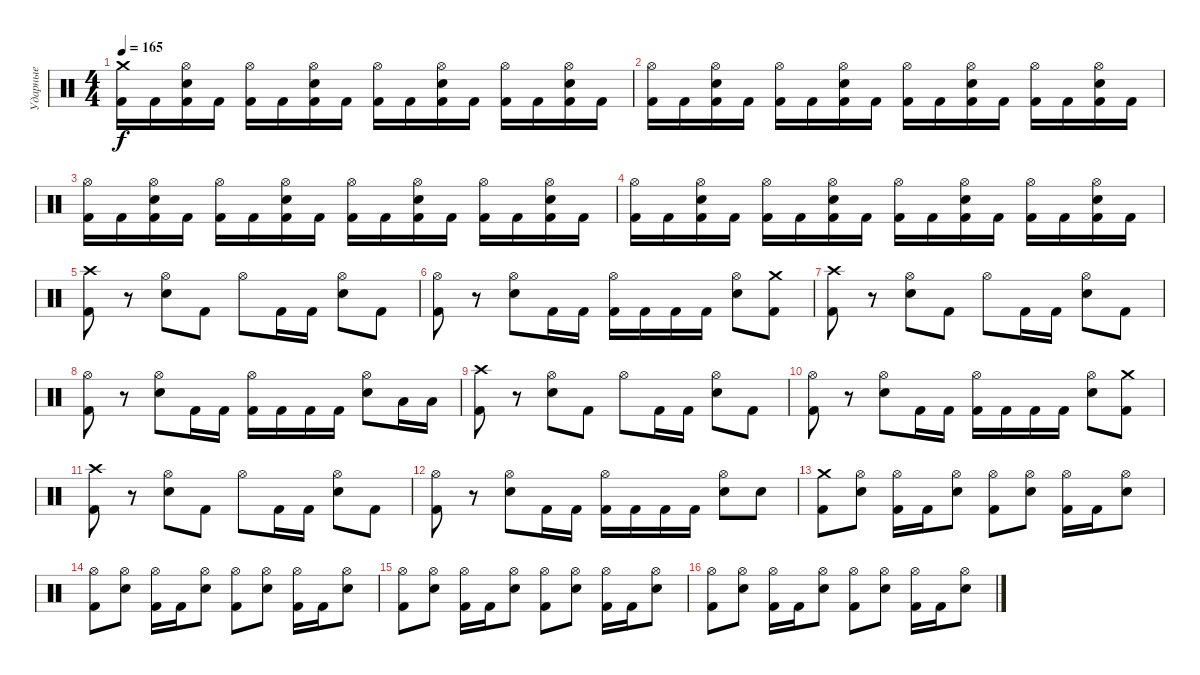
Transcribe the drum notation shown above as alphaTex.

\track ("Ударные" "Ударные") {instrument percussion}
\staff {score}
\articulation defaults
\ts (4 4)
\tempo 165
\clef neutral
\ks c
("Kick (hit) 2" "Crash medium (hit)").16{dy f} "Kick (hit) 2".16 ("Kick (hit) 2" "Electric Snare (hit)" "Hi-Hat (open)").16 "Kick (hit) 2".16 ("Kick (hit) 2" "Hi-Hat (open)").16 "Kick (hit) 2".16 ("Kick (hit) 2" "Electric Snare (hit)" "Hi-Hat (open)").16 "Kick (hit) 2".16 ("Kick (hit) 2" "Hi-Hat (open)").16 "Kick (hit) 2".16 ("Kick (hit) 2" "Electric Snare (hit)" "Hi-Hat (open)").16 "Kick (hit) 2".16 ("Kick (hit) 2" "Hi-Hat (open)").16 "Kick (hit) 2".16 ("Kick (hit) 2" "Electric Snare (hit)" "Hi-Hat (open)").16 "Kick (hit) 2".16 |
("Kick (hit) 2" "Hi-Hat (open)").16 "Kick (hit) 2".16 ("Kick (hit) 2" "Electric Snare (hit)" "Hi-Hat (open)").16 "Kick (hit) 2".16 ("Kick (hit) 2" "Hi-Hat (open)").16 "Kick (hit) 2".16 ("Kick (hit) 2" "Electric Snare (hit)" "Hi-Hat (open)").16 "Kick (hit) 2".16 ("Kick (hit) 2" "Hi-Hat (open)").16 "Kick (hit) 2".16 ("Kick (hit) 2" "Electric Snare (hit)" "Hi-Hat (open)").16 "Kick (hit) 2".16 ("Kick (hit) 2" "Hi-Hat (open)").16 "Kick (hit) 2".16 ("Kick (hit) 2" "Electric Snare (hit)" "Hi-Hat (open)").16 "Kick (hit) 2".16 |
("Kick (hit) 2" "Hi-Hat (open)").16 "Kick (hit) 2".16 ("Kick (hit) 2" "Electric Snare (hit)" "Hi-Hat (open)").16 "Kick (hit) 2".16 ("Kick (hit) 2" "Hi-Hat (open)").16 "Kick (hit) 2".16 ("Kick (hit) 2" "Electric Snare (hit)" "Hi-Hat (open)").16 "Kick (hit) 2".16 ("Kick (hit) 2" "Hi-Hat (open)").16 "Kick (hit) 2".16 ("Kick (hit) 2" "Electric Snare (hit)" "Hi-Hat (open)").16 "Kick (hit) 2".16 ("Kick (hit) 2" "Hi-Hat (open)").16 "Kick (hit) 2".16 ("Kick (hit) 2" "Electric Snare (hit)" "Hi-Hat (open)").16 "Kick (hit) 2".16 |
("Kick (hit) 2" "Hi-Hat (open)").16 "Kick (hit) 2".16 ("Kick (hit) 2" "Electric Snare (hit)" "Hi-Hat (open)").16 "Kick (hit) 2".16 ("Kick (hit) 2" "Hi-Hat (open)").16 "Kick (hit) 2".16 ("Kick (hit) 2" "Electric Snare (hit)" "Hi-Hat (open)").16 "Kick (hit) 2".16 ("Kick (hit) 2" "Hi-Hat (open)").16 "Kick (hit) 2".16 ("Kick (hit) 2" "Electric Snare (hit)" "Hi-Hat (open)").16 "Kick (hit) 2".16 ("Kick (hit) 2" "Hi-Hat (open)").16 "Kick (hit) 2".16 ("Kick (hit) 2" "Electric Snare (hit)" "Hi-Hat (open)").16 "Kick (hit) 2".16 |
("Crash high (hit)" "Kick (hit) 2").8 r.8 ("Hi-Hat (open)" "Electric Snare (hit)").8 "Kick (hit) 2".8 "Hi-Hat (open)".8 "Kick (hit) 2".16 "Kick (hit) 2".16 ("Hi-Hat (open)" "Electric Snare (hit)").8 "Kick (hit) 2".8 |
("Hi-Hat (open)" "Kick (hit) 2").8 r.8 ("Hi-Hat (open)" "Electric Snare (hit)").8 "Kick (hit) 2".16 "Kick (hit) 2".16 ("Hi-Hat (open)" "Kick (hit) 2").16 "Kick (hit) 2".16 "Kick (hit) 2".16 "Kick (hit) 2".16 ("Hi-Hat (open)" "Electric Snare (hit)").8 ("Crash medium (hit)" "Kick (hit) 2").8 |
("Crash high (hit)" "Kick (hit) 2").8 r.8 ("Hi-Hat (open)" "Electric Snare (hit)").8 "Kick (hit) 2".8 "Hi-Hat (open)".8 "Kick (hit) 2".16 "Kick (hit) 2".16 ("Hi-Hat (open)" "Electric Snare (hit)").8 "Kick (hit) 2".8 |
("Hi-Hat (open)" "Kick (hit) 2").8 r.8 ("Hi-Hat (open)" "Electric Snare (hit)").8 "Kick (hit) 2".16 "Kick (hit) 2".16 ("Hi-Hat (open)" "Kick (hit) 2").16 "Kick (hit) 2".16 "Kick (hit) 2".16 "Kick (hit) 2".16 ("Hi-Hat (open)" "Electric Snare (hit)").8 "Low Tom (hit)".16 "Low Tom (hit)".16 |
("Crash high (hit)" "Kick (hit) 2").8 r.8 ("Hi-Hat (open)" "Electric Snare (hit)").8 "Kick (hit) 2".8 "Hi-Hat (open)".8 "Kick (hit) 2".16 "Kick (hit) 2".16 ("Hi-Hat (open)" "Electric Snare (hit)").8 "Kick (hit) 2".8 |
("Hi-Hat (open)" "Kick (hit) 2").8 r.8 ("Hi-Hat (open)" "Electric Snare (hit)").8 "Kick (hit) 2".16 "Kick (hit) 2".16 ("Hi-Hat (open)" "Kick (hit) 2").16 "Kick (hit) 2".16 "Kick (hit) 2".16 "Kick (hit) 2".16 ("Hi-Hat (open)" "Electric Snare (hit)").8 ("Crash medium (hit)" "Kick (hit) 2").8 |
("Crash high (hit)" "Kick (hit) 2").8 r.8 ("Hi-Hat (open)" "Electric Snare (hit)").8 "Kick (hit) 2".8 "Hi-Hat (open)".8 "Kick (hit) 2".16 "Kick (hit) 2".16 ("Hi-Hat (open)" "Electric Snare (hit)").8 "Kick (hit) 2".8 |
("Hi-Hat (open)" "Kick (hit) 2").8 r.8 ("Hi-Hat (open)" "Electric Snare (hit)").8 "Kick (hit) 2".16 "Kick (hit) 2".16 ("Hi-Hat (open)" "Kick (hit) 2").16 "Kick (hit) 2".16 "Kick (hit) 2".16 "Kick (hit) 2".16 ("Hi-Hat (open)" "Electric Snare (hit)").8 "Electric Snare (hit)".8 |
("Crash medium (hit)" "Kick (hit) 2").8 ("Hi-Hat (open)" "Electric Snare (hit)").8 ("Hi-Hat (open)" "Kick (hit) 2").16 "Kick (hit) 2".16 ("Hi-Hat (open)" "Electric Snare (hit)").8 ("Hi-Hat (open)" "Kick (hit) 2").8 ("Hi-Hat (open)" "Electric Snare (hit)").8 ("Hi-Hat (open)" "Kick (hit) 2").16 "Kick (hit) 2".16 ("Hi-Hat (open)" "Electric Snare (hit)").8 |
("Hi-Hat (open)" "Kick (hit) 2").8 ("Hi-Hat (open)" "Electric Snare (hit)").8 ("Hi-Hat (open)" "Kick (hit) 2").16 "Kick (hit) 2".16 ("Hi-Hat (open)" "Electric Snare (hit)").8 ("Hi-Hat (open)" "Kick (hit) 2").8 ("Hi-Hat (open)" "Electric Snare (hit)").8 ("Hi-Hat (open)" "Kick (hit) 2").16 "Kick (hit) 2".16 ("Hi-Hat (open)" "Electric Snare (hit)").8 |
("Hi-Hat (open)" "Kick (hit) 2").8 ("Hi-Hat (open)" "Electric Snare (hit)").8 ("Hi-Hat (open)" "Kick (hit) 2").16 "Kick (hit) 2".16 ("Hi-Hat (open)" "Electric Snare (hit)").8 ("Hi-Hat (open)" "Kick (hit) 2").8 ("Hi-Hat (open)" "Electric Snare (hit)").8 ("Hi-Hat (open)" "Kick (hit) 2").16 "Kick (hit) 2".16 ("Hi-Hat (open)" "Electric Snare (hit)").8 |
("Hi-Hat (open)" "Kick (hit) 2").8 ("Hi-Hat (open)" "Electric Snare (hit)").8 ("Hi-Hat (open)" "Kick (hit) 2").16 "Kick (hit) 2".16 ("Hi-Hat (open)" "Electric Snare (hit)").8 ("Hi-Hat (open)" "Kick (hit) 2").8 ("Hi-Hat (open)" "Electric Snare (hit)").8 ("Hi-Hat (open)" "Kick (hit) 2").16 "Kick (hit) 2".16 ("Hi-Hat (open)" "Electric Snare (hit)").8
